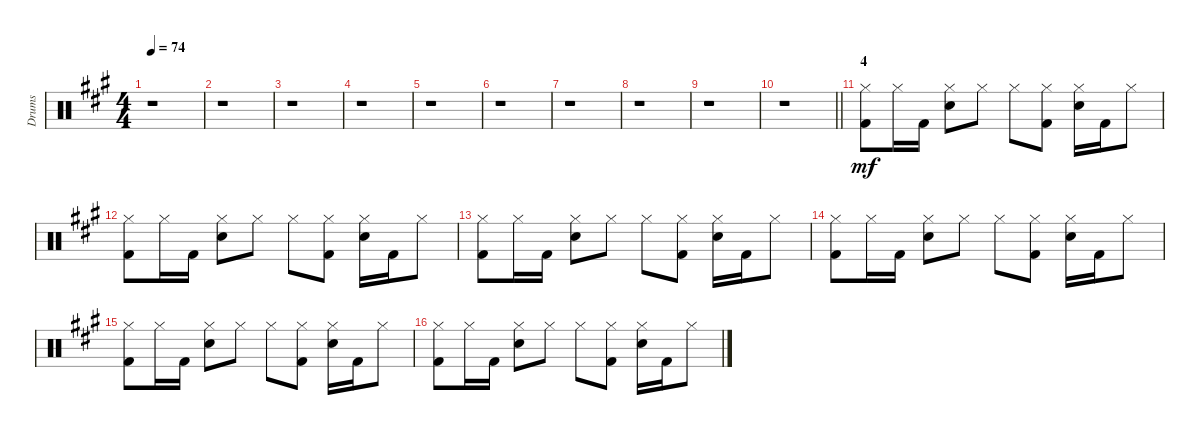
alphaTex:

\track ("Drums" "Drums") {instrument percussion}
\staff {score}
\articulation defaults
\ts (4 4)
\tempo 74
\clef neutral
\ks a
r.1{dy mf} |
r.1 |
r.1 |
r.1 |
r.1 |
r.1 |
r.1 |
r.1 |
r.1 |
\barLineRight lightlight
r.1 |
\section ("" "4")
("Kick (hit) 2" "Hi-Hat (closed)").8 "Hi-Hat (closed)".16 "Kick (hit) 2".16 ("Hi-Hat (closed)" "Electric Snare (hit)").8 "Hi-Hat (closed)".8 "Hi-Hat (closed)".8 ("Kick (hit) 2" "Hi-Hat (closed)").8 ("Electric Snare (hit)" "Hi-Hat (closed)").16 "Kick (hit) 2".16 "Hi-Hat (closed)".8 |
("Kick (hit) 2" "Hi-Hat (closed)").8 "Hi-Hat (closed)".16 "Kick (hit) 2".16 ("Hi-Hat (closed)" "Electric Snare (hit)").8 "Hi-Hat (closed)".8 "Hi-Hat (closed)".8 ("Kick (hit) 2" "Hi-Hat (closed)").8 ("Electric Snare (hit)" "Hi-Hat (closed)").16 "Kick (hit) 2".16 "Hi-Hat (closed)".8 |
("Kick (hit) 2" "Hi-Hat (closed)").8 "Hi-Hat (closed)".16 "Kick (hit) 2".16 ("Hi-Hat (closed)" "Electric Snare (hit)").8 "Hi-Hat (closed)".8 "Hi-Hat (closed)".8 ("Kick (hit) 2" "Hi-Hat (closed)").8 ("Electric Snare (hit)" "Hi-Hat (closed)").16 "Kick (hit) 2".16 "Hi-Hat (closed)".8 |
("Kick (hit) 2" "Hi-Hat (closed)").8 "Hi-Hat (closed)".16 "Kick (hit) 2".16 ("Hi-Hat (closed)" "Electric Snare (hit)").8 "Hi-Hat (closed)".8 "Hi-Hat (closed)".8 ("Kick (hit) 2" "Hi-Hat (closed)").8 ("Electric Snare (hit)" "Hi-Hat (closed)").16 "Kick (hit) 2".16 "Hi-Hat (closed)".8 |
("Kick (hit) 2" "Hi-Hat (closed)").8 "Hi-Hat (closed)".16 "Kick (hit) 2".16 ("Hi-Hat (closed)" "Electric Snare (hit)").8 "Hi-Hat (closed)".8 "Hi-Hat (closed)".8 ("Kick (hit) 2" "Hi-Hat (closed)").8 ("Electric Snare (hit)" "Hi-Hat (closed)").16 "Kick (hit) 2".16 "Hi-Hat (closed)".8 |
("Kick (hit) 2" "Hi-Hat (closed)").8 "Hi-Hat (closed)".16 "Kick (hit) 2".16 ("Hi-Hat (closed)" "Electric Snare (hit)").8 "Hi-Hat (closed)".8 "Hi-Hat (closed)".8 ("Kick (hit) 2" "Hi-Hat (closed)").8 ("Electric Snare (hit)" "Hi-Hat (closed)").16 "Kick (hit) 2".16 "Hi-Hat (closed)".8
